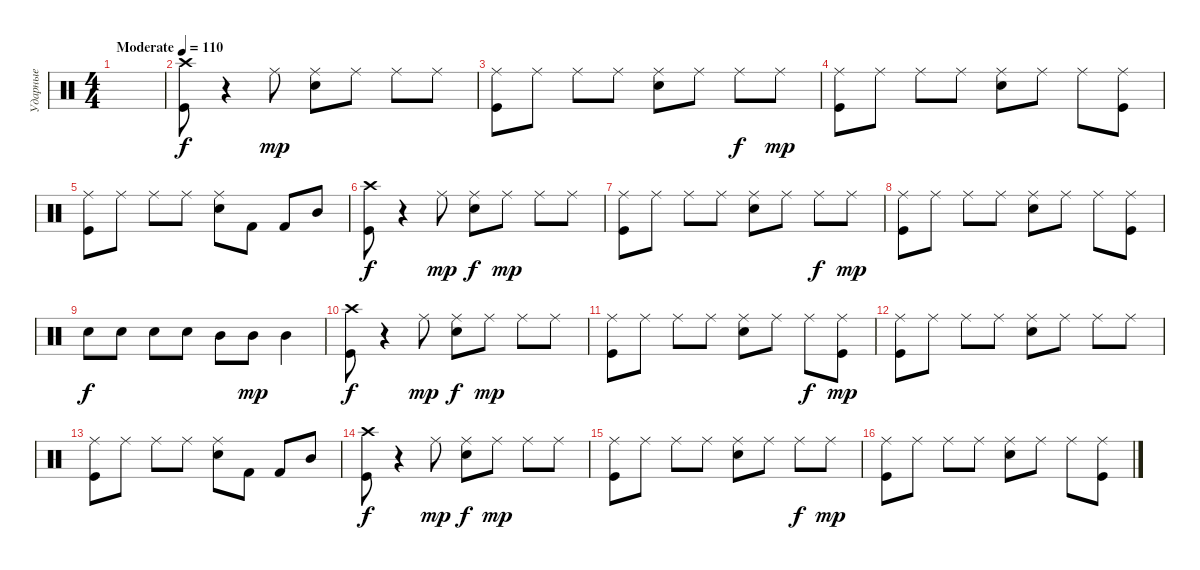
\track ("Ударные" "Ударные") {instrument percussion}
\staff {score}
\articulation defaults
\ts (4 4)
\tempo (110 "Moderate")
\clef neutral
\ks c
|
("Crash high (hit)" "Kick (hit)").8 r.4 "Ride (middle)".8{dy mp} ("Ride (middle)" "Snare (hit) 2").8 "Ride (middle)".8 "Ride (middle)".8 "Ride (middle)".8 |
("Ride (middle)" "Kick (hit)").8 "Ride (middle)".8 "Ride (middle)".8 "Ride (middle)".8 ("Ride (middle)" "Snare (hit) 2").8 "Ride (middle)".8 "Ride (middle)".8{dy f} "Ride (middle)".8{dy mp} |
("Ride (middle)" "Kick (hit)").8 "Ride (middle)".8 "Ride (middle)".8 "Ride (middle)".8 ("Ride (middle)" "Snare (hit) 2").8 "Ride (middle)".8 "Ride (middle)".8 ("Ride (middle)" "Kick (hit)").8 |
("Ride (middle)" "Kick (hit)").8 "Ride (middle)".8 "Ride (middle)".8 "Ride (middle)".8 ("Ride (middle)" "Snare (hit) 2").8 "Kick (hit) 2".8 "Kick (hit) 2".8 "Mid Tom (hit)".8 |
("Crash high (hit)" "Kick (hit)").8{dy f} r.4 "Ride (middle)".8{dy mp} ("Ride (middle)" "Snare (hit) 2").8{dy f} "Ride (middle)".8{dy mp} "Ride (middle)".8 "Ride (middle)".8 |
("Ride (middle)" "Kick (hit)").8 "Ride (middle)".8 "Ride (middle)".8 "Ride (middle)".8 ("Ride (middle)" "Snare (hit) 2").8 "Ride (middle)".8 "Ride (middle)".8{dy f} "Ride (middle)".8{dy mp} |
("Ride (middle)" "Kick (hit)").8 "Ride (middle)".8 "Ride (middle)".8 "Ride (middle)".8 ("Ride (middle)" "Snare (hit) 2").8 "Ride (middle)".8 "Ride (middle)".8 ("Ride (middle)" "Kick (hit)").8 |
"Snare (hit) 2".8{dy f} "Snare (hit) 2".8 "Snare (hit) 2".8 "Snare (hit) 2".8 "Mid Tom (hit)".8 "Mid Tom (hit)".8{dy mp} "Mid Tom (hit)".4 |
("Crash high (hit)" "Kick (hit)").8{dy f} r.4 "Ride (middle)".8{dy mp} ("Ride (middle)" "Snare (hit) 2").8{dy f} "Ride (middle)".8{dy mp} "Ride (middle)".8 "Ride (middle)".8 |
("Ride (middle)" "Kick (hit)").8 "Ride (middle)".8 "Ride (middle)".8 "Ride (middle)".8 ("Ride (middle)" "Snare (hit) 2").8 "Ride (middle)".8 "Ride (middle)".8{dy f} ("Ride (middle)" "Kick (hit)").8{dy mp} |
("Ride (middle)" "Kick (hit)").8 "Ride (middle)".8 "Ride (middle)".8 "Ride (middle)".8 ("Ride (middle)" "Snare (hit) 2").8 "Ride (middle)".8 "Ride (middle)".8 "Ride (middle)".8 |
("Ride (middle)" "Kick (hit)").8 "Ride (middle)".8 "Ride (middle)".8 "Ride (middle)".8 ("Ride (middle)" "Snare (hit) 2").8 "Kick (hit) 2".8 "Kick (hit) 2".8 "Mid Tom (hit)".8 |
("Crash high (hit)" "Kick (hit)").8{dy f} r.4 "Ride (middle)".8{dy mp} ("Ride (middle)" "Snare (hit) 2").8{dy f} "Ride (middle)".8{dy mp} "Ride (middle)".8 "Ride (middle)".8 |
("Ride (middle)" "Kick (hit)").8 "Ride (middle)".8 "Ride (middle)".8 "Ride (middle)".8 ("Ride (middle)" "Snare (hit) 2").8 "Ride (middle)".8 "Ride (middle)".8{dy f} "Ride (middle)".8{dy mp} |
("Ride (middle)" "Kick (hit)").8 "Ride (middle)".8 "Ride (middle)".8 "Ride (middle)".8 ("Ride (middle)" "Snare (hit) 2").8 "Ride (middle)".8 "Ride (middle)".8 ("Ride (middle)" "Kick (hit)").8
